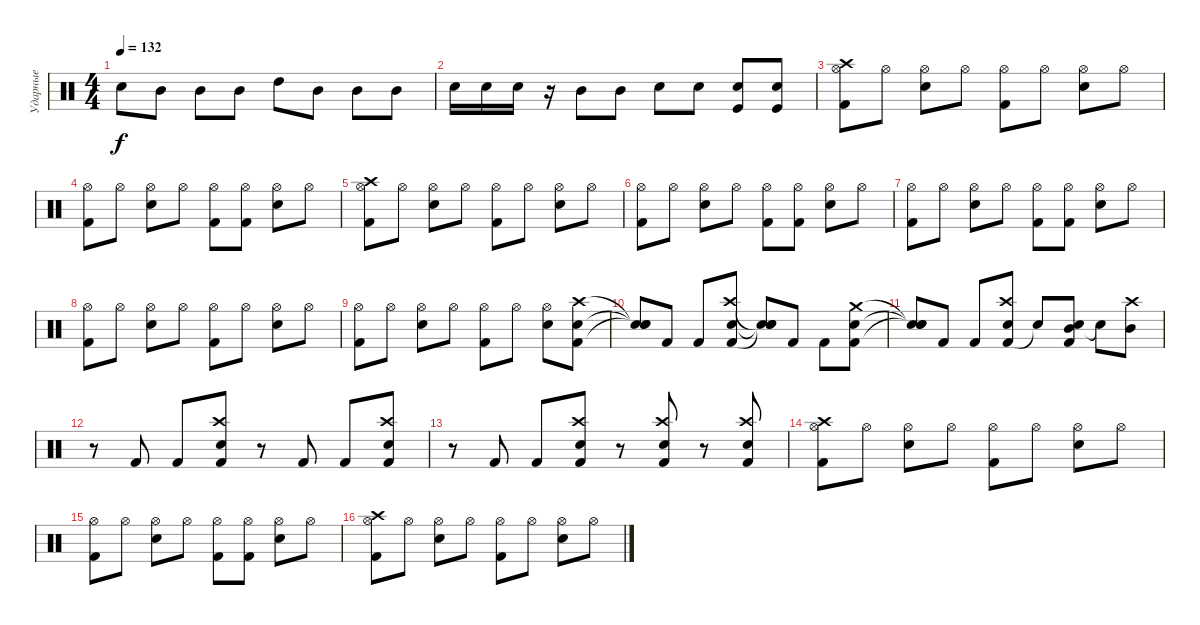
\track ("Ударные" "Ударные") {instrument percussion}
\staff {score}
\articulation defaults
\ts (4 4)
\tempo 132
\clef neutral
\ks c "Snare (hit) 2".8{dy f} "Mid Tom (hit)".8 "Mid Tom (hit)".8 "Mid Tom (hit)".8 "High Tom (hit)".8 "Mid Tom (hit)".8 "Mid Tom (hit)".8 "Mid Tom (hit)".8
|
"Snare (hit) 2".16 "Snare (hit) 2".16 "Snare (hit) 2".16 r.16 "Mid Tom (hit)".8 "Mid Tom (hit)".8 "Electric Snare (hit)".8 "Snare (hit) 2".8 ("Snare (hit) 2" "Kick (hit)").8 ("Snare (hit) 2" "Kick (hit)").8 |
("Crash high (hit)" "Hi-Hat (open)" "Kick (hit) 2").8 "Hi-Hat (open)".8 ("Hi-Hat (open)" "Electric Snare (hit)").8 "Hi-Hat (open)".8 ("Hi-Hat (open)" "Kick (hit) 2").8 "Hi-Hat (open)".8 ("Hi-Hat (open)" "Electric Snare (hit)").8 "Hi-Hat (open)".8 |
("Hi-Hat (open)" "Kick (hit) 2").8 "Hi-Hat (open)".8 ("Hi-Hat (open)" "Electric Snare (hit)").8 "Hi-Hat (open)".8 ("Hi-Hat (open)" "Kick (hit) 2").8 ("Hi-Hat (open)" "Kick (hit) 2").8 ("Hi-Hat (open)" "Electric Snare (hit)").8 "Hi-Hat (open)".8 |
("Crash high (hit)" "Hi-Hat (open)" "Kick (hit) 2").8 "Hi-Hat (open)".8 ("Hi-Hat (open)" "Electric Snare (hit)").8 "Hi-Hat (open)".8 ("Hi-Hat (open)" "Kick (hit) 2").8 "Hi-Hat (open)".8 ("Hi-Hat (open)" "Electric Snare (hit)").8 "Hi-Hat (open)".8 |
("Hi-Hat (open)" "Kick (hit) 2").8 "Hi-Hat (open)".8 ("Hi-Hat (open)" "Electric Snare (hit)").8 "Hi-Hat (open)".8 ("Hi-Hat (open)" "Kick (hit) 2").8 ("Hi-Hat (open)" "Kick (hit) 2").8 ("Hi-Hat (open)" "Electric Snare (hit)").8 "Hi-Hat (open)".8 |
("Hi-Hat (open)" "Kick (hit) 2").8 "Hi-Hat (open)".8 ("Hi-Hat (open)" "Electric Snare (hit)").8 "Hi-Hat (open)".8 ("Hi-Hat (open)" "Kick (hit) 2").8 ("Hi-Hat (open)" "Kick (hit) 2").8 ("Hi-Hat (open)" "Electric Snare (hit)").8 "Hi-Hat (open)".8 |
("Hi-Hat (open)" "Kick (hit) 2").8 "Hi-Hat (open)".8 ("Hi-Hat (open)" "Electric Snare (hit)").8 "Hi-Hat (open)".8 ("Hi-Hat (open)" "Kick (hit) 2").8 "Hi-Hat (open)".8 ("Hi-Hat (open)" "Electric Snare (hit)").8 "Hi-Hat (open)".8 |
("Hi-Hat (open)" "Kick (hit) 2").8 "Hi-Hat (open)".8 ("Hi-Hat (open)" "Electric Snare (hit)").8 "Hi-Hat (open)".8 ("Hi-Hat (open)" "Kick (hit) 2").8 "Hi-Hat (open)".8 ("Hi-Hat (open)" "Electric Snare (hit)").8 ("Kick (hit) 2" "Electric Snare (hit)" "Crash high (hit)").8 |
("Snare (hit)"{t} "Snare (hit)"{t} "Snare (hit)"{t}).8 "Kick (hit) 2".8 "Kick (hit) 2".8 ("Kick (hit) 2" "Crash high (hit)" "Electric Snare (hit)").8 ("Snare (hit)"{t} "Snare (hit)"{t} "Snare (hit)"{t}).8 "Kick (hit) 2".8 "Kick (hit) 2".8 ("Snare (hit) 2" "Kick (hit) 2" "Crash medium (hit)").8 |
("Snare (hit)"{t} "Snare (hit)"{t} "Snare (hit)"{t}).8 "Kick (hit) 2".8 "Kick (hit) 2".8 ("Kick (hit) 2" "Crash high (hit)" "Electric Snare (hit)").8 "Snare (hit)"{t}.8 ("Mid Tom (hit)" "Kick (hit) 2" "Snare (hit) 2").8 "Snare (hit)"{t}.8 ("Crash high (hit)" "Mid Tom (hit)").8 |
r.8 "Kick (hit) 2".8 "Kick (hit) 2".8 ("Kick (hit) 2" "Crash high (hit)" "Electric Snare (hit)").8 r.8 "Kick (hit) 2".8 "Kick (hit) 2".8 ("Kick (hit) 2" "Crash high (hit)" "Electric Snare (hit)").8 |
r.8 "Kick (hit) 2".8 "Kick (hit) 2".8 ("Kick (hit) 2" "Electric Snare (hit)" "Crash high (hit)").8 r.8 ("Kick (hit) 2" "Electric Snare (hit)" "Crash high (hit)").8 r.8 ("Kick (hit) 2" "Electric Snare (hit)" "Crash high (hit)").8 |
("Crash high (hit)" "Hi-Hat (open)" "Kick (hit) 2").8 "Hi-Hat (open)".8 ("Hi-Hat (open)" "Electric Snare (hit)").8 "Hi-Hat (open)".8 ("Hi-Hat (open)" "Kick (hit) 2").8 "Hi-Hat (open)".8 ("Hi-Hat (open)" "Electric Snare (hit)").8 "Hi-Hat (open)".8 |
("Hi-Hat (open)" "Kick (hit) 2").8 "Hi-Hat (open)".8 ("Hi-Hat (open)" "Electric Snare (hit)").8 "Hi-Hat (open)".8 ("Hi-Hat (open)" "Kick (hit) 2").8 ("Hi-Hat (open)" "Kick (hit) 2").8 ("Hi-Hat (open)" "Electric Snare (hit)").8 "Hi-Hat (open)".8 |
("Crash high (hit)" "Hi-Hat (open)" "Kick (hit) 2").8 "Hi-Hat (open)".8 ("Hi-Hat (open)" "Electric Snare (hit)").8 "Hi-Hat (open)".8 ("Hi-Hat (open)" "Kick (hit) 2").8 "Hi-Hat (open)".8 ("Hi-Hat (open)" "Electric Snare (hit)").8 "Hi-Hat (open)".8
